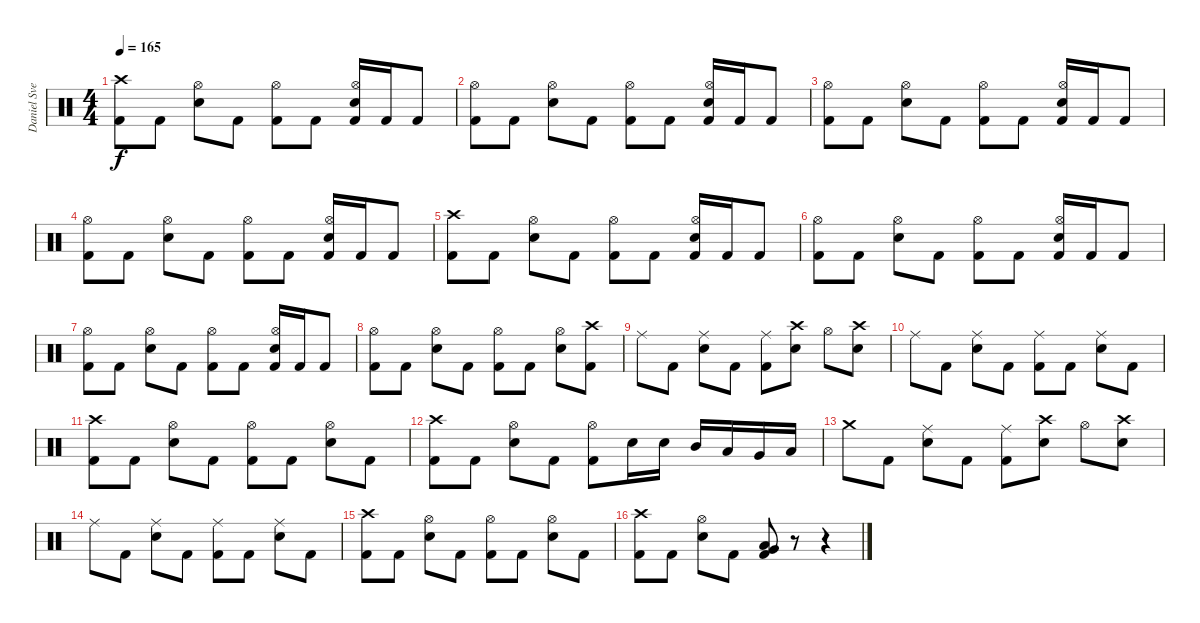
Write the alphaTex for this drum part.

\track ("Daniel Svensson" "Daniel Sve") {instrument percussion}
\staff {score}
\articulation defaults
\ts (4 4)
\tempo 165
\clef neutral
\ks c
("Crash high (hit)" "Kick (hit) 2").8{dy f} "Kick (hit) 2".8 ("Hi-Hat (open)" "Electric Snare (hit)").8 "Kick (hit) 2".8 ("Hi-Hat (open)" "Kick (hit) 2").8 "Kick (hit) 2".8 ("Hi-Hat (open)" "Electric Snare (hit)" "Kick (hit) 2").16 "Kick (hit) 2".16 "Kick (hit) 2".8 |
("Hi-Hat (open)" "Kick (hit) 2").8 "Kick (hit) 2".8 ("Hi-Hat (open)" "Electric Snare (hit)").8 "Kick (hit) 2".8 ("Hi-Hat (open)" "Kick (hit) 2").8 "Kick (hit) 2".8 ("Hi-Hat (open)" "Electric Snare (hit)" "Kick (hit) 2").16 "Kick (hit) 2".16 "Kick (hit) 2".8 |
("Hi-Hat (open)" "Kick (hit) 2").8 "Kick (hit) 2".8 ("Hi-Hat (open)" "Electric Snare (hit)").8 "Kick (hit) 2".8 ("Hi-Hat (open)" "Kick (hit) 2").8 "Kick (hit) 2".8 ("Hi-Hat (open)" "Electric Snare (hit)" "Kick (hit) 2").16 "Kick (hit) 2".16 "Kick (hit) 2".8 |
("Hi-Hat (open)" "Kick (hit) 2").8 "Kick (hit) 2".8 ("Hi-Hat (open)" "Electric Snare (hit)").8 "Kick (hit) 2".8 ("Hi-Hat (open)" "Kick (hit) 2").8 "Kick (hit) 2".8 ("Hi-Hat (open)" "Electric Snare (hit)" "Kick (hit) 2").16 "Kick (hit) 2".16 "Kick (hit) 2".8 |
("Crash high (hit)" "Kick (hit) 2").8 "Kick (hit) 2".8 ("Hi-Hat (open)" "Electric Snare (hit)").8 "Kick (hit) 2".8 ("Hi-Hat (open)" "Kick (hit) 2").8 "Kick (hit) 2".8 ("Hi-Hat (open)" "Electric Snare (hit)" "Kick (hit) 2").16 "Kick (hit) 2".16 "Kick (hit) 2".8 |
("Hi-Hat (open)" "Kick (hit) 2").8 "Kick (hit) 2".8 ("Hi-Hat (open)" "Electric Snare (hit)").8 "Kick (hit) 2".8 ("Hi-Hat (open)" "Kick (hit) 2").8 "Kick (hit) 2".8 ("Hi-Hat (open)" "Electric Snare (hit)" "Kick (hit) 2").16 "Kick (hit) 2".16 "Kick (hit) 2".8 |
("Hi-Hat (open)" "Kick (hit) 2").8 "Kick (hit) 2".8 ("Hi-Hat (open)" "Electric Snare (hit)").8 "Kick (hit) 2".8 ("Hi-Hat (open)" "Kick (hit) 2").8 "Kick (hit) 2".8 ("Hi-Hat (open)" "Electric Snare (hit)" "Kick (hit) 2").16 "Kick (hit) 2".16 "Kick (hit) 2".8 |
("Hi-Hat (open)" "Kick (hit) 2").8 "Kick (hit) 2".8 ("Hi-Hat (open)" "Electric Snare (hit)").8 "Kick (hit) 2".8 ("Hi-Hat (open)" "Kick (hit) 2").8 "Kick (hit) 2".8 ("Hi-Hat (open)" "Electric Snare (hit)").8 ("Crash high (hit)" "Kick (hit) 2").8 |
"Ride (middle)".8 "Kick (hit) 2".8 ("Ride (middle)" "Electric Snare (hit)").8 "Kick (hit) 2".8 ("Ride (middle)" "Kick (hit) 2").8 ("Crash high (hit)" "Electric Snare (hit)").8 "Hi-Hat (open)".8 ("Crash high (hit)" "Electric Snare (hit)").8 |
"Ride (middle)".8 "Kick (hit) 2".8 ("Ride (middle)" "Electric Snare (hit)").8 "Kick (hit) 2".8 ("Ride (middle)" "Kick (hit) 2").8 "Kick (hit) 2".8 ("Ride (middle)" "Electric Snare (hit)").8 "Kick (hit) 2".8 |
("Crash high (hit)" "Kick (hit) 2").8 "Kick (hit) 2".8 ("Hi-Hat (open)" "Electric Snare (hit)").8 "Kick (hit) 2".8 ("Hi-Hat (open)" "Kick (hit) 2").8 "Kick (hit) 2".8 ("Hi-Hat (open)" "Electric Snare (hit)").8 "Kick (hit) 2".8 |
("Crash high (hit)" "Kick (hit) 2").8 "Kick (hit) 2".8 ("Hi-Hat (open)" "Electric Snare (hit)").8 "Kick (hit) 2".8 ("Hi-Hat (open)" "Kick (hit) 2").8 "Electric Snare (hit)".16 "Electric Snare (hit)".16 "Mid Tom (hit)".16 "Low Tom (hit)".16 "Very Low Tom (hit)".16 "Low Floor Tom (hit)".16 |
"Crash medium (hit)".8 "Kick (hit) 2".8 ("Ride (middle)" "Electric Snare (hit)").8 "Kick (hit) 2".8 ("Ride (middle)" "Kick (hit) 2").8 ("Crash high (hit)" "Electric Snare (hit)").8 "Hi-Hat (open)".8 ("Crash high (hit)" "Electric Snare (hit)").8 |
"Ride (middle)".8 "Kick (hit) 2".8 ("Ride (middle)" "Electric Snare (hit)").8 "Kick (hit) 2".8 ("Ride (middle)" "Kick (hit) 2").8 "Kick (hit) 2".8 ("Ride (middle)" "Electric Snare (hit)").8 "Kick (hit) 2".8 |
("Crash high (hit)" "Kick (hit) 2").8 "Kick (hit) 2".8 ("Hi-Hat (open)" "Electric Snare (hit)").8 "Kick (hit) 2".8 ("Hi-Hat (open)" "Kick (hit) 2").8 "Kick (hit) 2".8 ("Hi-Hat (open)" "Electric Snare (hit)").8 "Kick (hit) 2".8 |
("Crash high (hit)" "Kick (hit) 2").8 "Kick (hit) 2".8 ("Hi-Hat (open)" "Electric Snare (hit)").8 "Kick (hit) 2".8 ("Very Low Tom (hit)" "Low Floor Tom (hit)" "Kick (hit) 2").8 r.8 r.4
